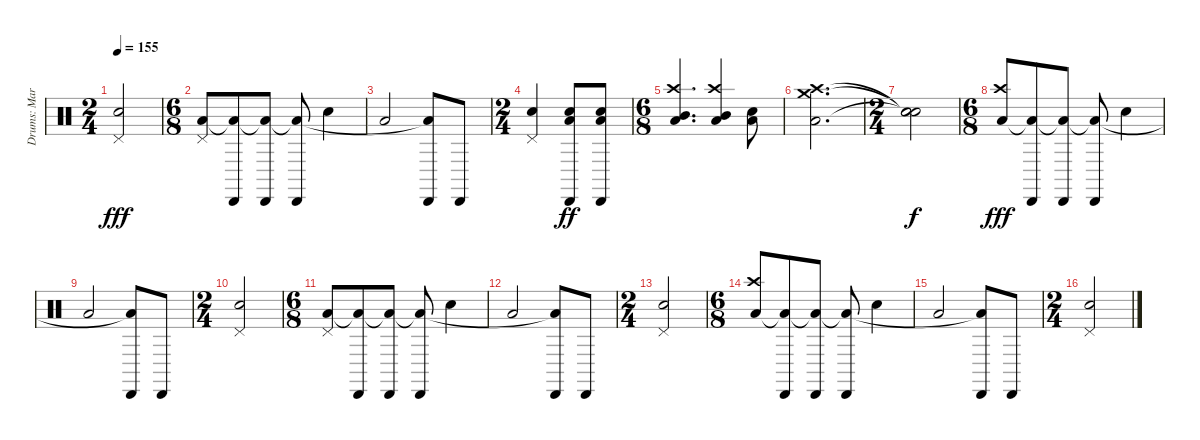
\track ("Drums: Mark Cross" "Drums: Mar") {instrument percussion}
\staff {score}
\articulation defaults
\ts (2 4)
\tempo 155
\clef neutral
\ks c
("Pedal Hi-Hat (hit)" "Snare (hit) 2").2{dy fff} |
\ts (6 8)
("Pedal Hi-Hat (hit)" "Low Tom (hit)").8 ("Cabasa (hit)" "Low Tom (hit)"{t}).8 ("Cabasa (hit)" "Low Tom (hit)"{t}).8 ("Cabasa (hit)" "Low Tom (hit)"{t}).8 "Snare (hit) 2".4 |
"Low Tom (hit)".2 ("Cabasa (hit)" "Low Tom (hit)"{t}).8 "Cabasa (hit)".8 |
\ts (2 4)
("Pedal Hi-Hat (hit)" "Snare (hit) 2").4 ("Cabasa (hit)" "Low Tom (hit)" "Snare (hit) 2").8{dy ff} ("Cabasa (hit)" "Low Tom (hit)" "Snare (hit) 2").8 |
\ts (6 8)
("Crash high (hit)" "Mid Tom (hit)" "Low Tom (hit)").4{d} ("Crash high (hit)" "Mid Tom (hit)" "Low Tom (hit)").4 ("Snare (hit) 2" "Low Tom (hit)").8 |
("Crash high (hit)" "Crash medium (hit)" "Low Tom (hit)").2{d} |
\ts (2 4)
("Snare (hit)"{t} "Snare (hit)"{t} "Snare (hit)"{t}).2{dy f} |
\ts (6 8)
("Crash high (hit)" "Low Tom (hit)").8{dy fff} ("Cabasa (hit)" "Low Tom (hit)"{t}).8 ("Cabasa (hit)" "Low Tom (hit)"{t}).8 ("Cabasa (hit)" "Low Tom (hit)"{t}).8 "Snare (hit) 2".4 |
"Low Tom (hit)".2 ("Cabasa (hit)" "Low Tom (hit)"{t}).8 "Cabasa (hit)".8 |
\ts (2 4)
("Pedal Hi-Hat (hit)" "Snare (hit) 2").2 |
\ts (6 8)
("Pedal Hi-Hat (hit)" "Low Tom (hit)").8 ("Cabasa (hit)" "Low Tom (hit)"{t}).8 ("Cabasa (hit)" "Low Tom (hit)"{t}).8 ("Cabasa (hit)" "Low Tom (hit)"{t}).8 "Snare (hit) 2".4 |
"Low Tom (hit)".2 ("Cabasa (hit)" "Low Tom (hit)"{t}).8 "Cabasa (hit)".8 |
\ts (2 4)
("Pedal Hi-Hat (hit)" "Snare (hit) 2").2 |
\ts (6 8)
("Crash high (hit)" "Low Tom (hit)").8 ("Cabasa (hit)" "Low Tom (hit)"{t}).8 ("Cabasa (hit)" "Low Tom (hit)"{t}).8 ("Cabasa (hit)" "Low Tom (hit)"{t}).8 "Snare (hit) 2".4 |
"Low Tom (hit)".2 ("Cabasa (hit)" "Low Tom (hit)"{t}).8 "Cabasa (hit)".8 |
\ts (2 4)
("Pedal Hi-Hat (hit)" "Snare (hit) 2").2
